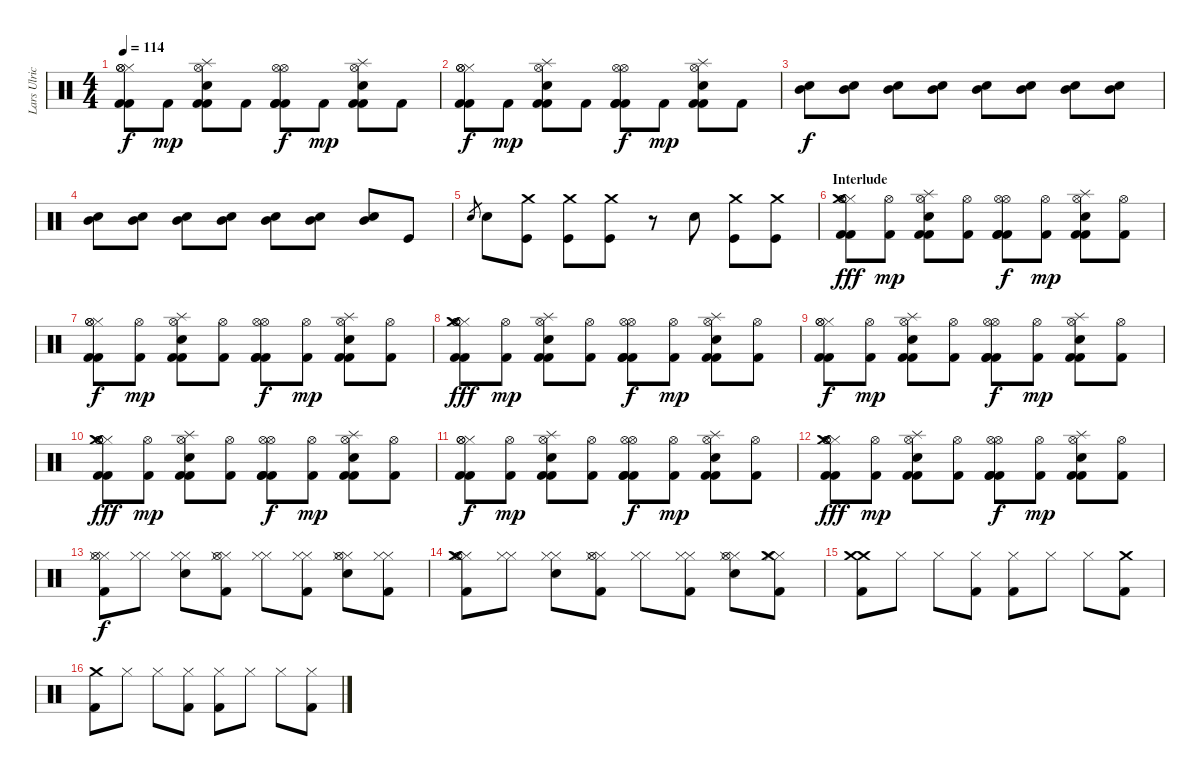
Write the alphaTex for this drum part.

\track ("Lars Ulrich" "Lars Ulric") {instrument percussion}
\staff {score}
\articulation defaults
\ts (4 4)
\tempo 114
\clef neutral
\ks c
("Hi-Hat (closed)" "Hi-Hat (open)" "Hi-Hat (open)" "Kick (hit) 2" "Kick (hit) 2").8{dy f} "Kick (hit) 2".8{dy mp} ("Snare (hit) 2" "Splash (hit)" "Hi-Hat (open)" "Kick (hit) 2" "Kick (hit) 2").8 "Kick (hit) 2".8 ("Kick (hit) 2" "Hi-Hat (open)" "Hi-Hat (open)" "Kick (hit) 2" "Kick (hit) 2").8{dy f} "Kick (hit) 2".8{dy mp} ("Snare (hit) 2" "Splash (hit)" "Hi-Hat (open)" "Kick (hit) 2" "Kick (hit) 2").8 "Kick (hit) 2".8 |
("Hi-Hat (closed)" "Hi-Hat (open)" "Hi-Hat (open)" "Kick (hit) 2" "Kick (hit) 2").8{dy f} "Kick (hit) 2".8{dy mp} ("Snare (hit) 2" "Splash (hit)" "Hi-Hat (open)" "Kick (hit) 2" "Kick (hit) 2").8 "Kick (hit) 2".8 ("Kick (hit) 2" "Hi-Hat (open)" "Hi-Hat (open)" "Kick (hit) 2" "Kick (hit) 2").8{dy f} "Kick (hit) 2".8{dy mp} ("Snare (hit) 2" "Splash (hit)" "Hi-Hat (open)" "Kick (hit) 2" "Kick (hit) 2").8 "Kick (hit) 2".8 |
("Electric Snare (hit)" "Mid Tom (hit)").8{dy f} ("Electric Snare (hit)" "Mid Tom (hit)").8 ("Electric Snare (hit)" "Mid Tom (hit)").8 ("Electric Snare (hit)" "Mid Tom (hit)").8 ("Electric Snare (hit)" "Mid Tom (hit)").8 ("Electric Snare (hit)" "Mid Tom (hit)").8 ("Electric Snare (hit)" "Mid Tom (hit)").8 ("Electric Snare (hit)" "Mid Tom (hit)").8 |
("Electric Snare (hit)" "Mid Tom (hit)").8 ("Electric Snare (hit)" "Mid Tom (hit)").8 ("Electric Snare (hit)" "Mid Tom (hit)").8 ("Electric Snare (hit)" "Mid Tom (hit)").8 ("Electric Snare (hit)" "Mid Tom (hit)").8 ("Electric Snare (hit)" "Mid Tom (hit)").8 ("Electric Snare (hit)" "Mid Tom (hit)").8 "Kick (hit)".8 |
"Electric Snare (hit)".8{gr} "Electric Snare (hit)".8 ("Kick (hit)" "Crash medium (hit)").8 ("Kick (hit)" "Crash medium (hit)").8 ("Kick (hit)" "Crash medium (hit)").8 r.8 "Electric Snare (hit)".8 ("Kick (hit)" "Crash medium (hit)").8 ("Kick (hit)" "Crash medium (hit)").8 |
\section ("" "Interlude")
("Hi-Hat (closed)" "Hi-Hat (open)" "Hi-Hat (open)" "Kick (hit) 2" "Kick (hit) 2" "Crash medium (hit)").8{dy fff} ("Hi-Hat (open)" "Kick (hit) 2").8{dy mp} ("Snare (hit) 2" "Splash (hit)" "Hi-Hat (open)" "Kick (hit) 2" "Kick (hit) 2").8 ("Hi-Hat (open)" "Kick (hit) 2").8 ("Kick (hit) 2" "Hi-Hat (open)" "Hi-Hat (open)" "Kick (hit) 2" "Kick (hit) 2").8{dy f} ("Hi-Hat (open)" "Kick (hit) 2").8{dy mp} ("Snare (hit) 2" "Splash (hit)" "Hi-Hat (open)" "Kick (hit) 2" "Kick (hit) 2").8 ("Hi-Hat (open)" "Kick (hit) 2").8 |
("Hi-Hat (closed)" "Hi-Hat (open)" "Hi-Hat (open)" "Kick (hit) 2" "Kick (hit) 2").8{dy f} ("Hi-Hat (open)" "Kick (hit) 2").8{dy mp} ("Snare (hit) 2" "Splash (hit)" "Hi-Hat (open)" "Kick (hit) 2" "Kick (hit) 2").8 ("Hi-Hat (open)" "Kick (hit) 2").8 ("Kick (hit) 2" "Hi-Hat (open)" "Hi-Hat (open)" "Kick (hit) 2" "Kick (hit) 2").8{dy f} ("Hi-Hat (open)" "Kick (hit) 2").8{dy mp} ("Snare (hit) 2" "Splash (hit)" "Hi-Hat (open)" "Kick (hit) 2" "Kick (hit) 2").8 ("Hi-Hat (open)" "Kick (hit) 2").8 |
("Hi-Hat (closed)" "Hi-Hat (open)" "Hi-Hat (open)" "Kick (hit) 2" "Kick (hit) 2" "Crash medium (hit)").8{dy fff} ("Hi-Hat (open)" "Kick (hit) 2").8{dy mp} ("Snare (hit) 2" "Splash (hit)" "Hi-Hat (open)" "Kick (hit) 2" "Kick (hit) 2").8 ("Hi-Hat (open)" "Kick (hit) 2").8 ("Kick (hit) 2" "Hi-Hat (open)" "Hi-Hat (open)" "Kick (hit) 2" "Kick (hit) 2").8{dy f} ("Hi-Hat (open)" "Kick (hit) 2").8{dy mp} ("Snare (hit) 2" "Splash (hit)" "Hi-Hat (open)" "Kick (hit) 2" "Kick (hit) 2").8 ("Hi-Hat (open)" "Kick (hit) 2").8 |
("Hi-Hat (closed)" "Hi-Hat (open)" "Hi-Hat (open)" "Kick (hit) 2" "Kick (hit) 2").8{dy f} ("Hi-Hat (open)" "Kick (hit) 2").8{dy mp} ("Snare (hit) 2" "Splash (hit)" "Hi-Hat (open)" "Kick (hit) 2" "Kick (hit) 2").8 ("Hi-Hat (open)" "Kick (hit) 2").8 ("Kick (hit) 2" "Hi-Hat (open)" "Hi-Hat (open)" "Kick (hit) 2" "Kick (hit) 2").8{dy f} ("Hi-Hat (open)" "Kick (hit) 2").8{dy mp} ("Snare (hit) 2" "Splash (hit)" "Hi-Hat (open)" "Kick (hit) 2" "Kick (hit) 2").8 ("Hi-Hat (open)" "Kick (hit) 2").8 |
("Hi-Hat (closed)" "Hi-Hat (open)" "Hi-Hat (open)" "Kick (hit) 2" "Kick (hit) 2" "Crash medium (hit)").8{dy fff} ("Hi-Hat (open)" "Kick (hit) 2").8{dy mp} ("Snare (hit) 2" "Splash (hit)" "Hi-Hat (open)" "Kick (hit) 2" "Kick (hit) 2").8 ("Hi-Hat (open)" "Kick (hit) 2").8 ("Kick (hit) 2" "Hi-Hat (open)" "Hi-Hat (open)" "Kick (hit) 2" "Kick (hit) 2").8{dy f} ("Hi-Hat (open)" "Kick (hit) 2").8{dy mp} ("Snare (hit) 2" "Splash (hit)" "Hi-Hat (open)" "Kick (hit) 2" "Kick (hit) 2").8 ("Hi-Hat (open)" "Kick (hit) 2").8 |
("Hi-Hat (closed)" "Hi-Hat (open)" "Hi-Hat (open)" "Kick (hit) 2" "Kick (hit) 2").8{dy f} ("Hi-Hat (open)" "Kick (hit) 2").8{dy mp} ("Snare (hit) 2" "Splash (hit)" "Hi-Hat (open)" "Kick (hit) 2" "Kick (hit) 2").8 ("Hi-Hat (open)" "Kick (hit) 2").8 ("Kick (hit) 2" "Hi-Hat (open)" "Hi-Hat (open)" "Kick (hit) 2" "Kick (hit) 2").8{dy f} ("Hi-Hat (open)" "Kick (hit) 2").8{dy mp} ("Snare (hit) 2" "Splash (hit)" "Hi-Hat (open)" "Kick (hit) 2" "Kick (hit) 2").8 ("Hi-Hat (open)" "Kick (hit) 2").8 |
("Hi-Hat (closed)" "Hi-Hat (open)" "Hi-Hat (open)" "Kick (hit) 2" "Kick (hit) 2" "Crash medium (hit)").8{dy fff} ("Hi-Hat (open)" "Kick (hit) 2").8{dy mp} ("Snare (hit) 2" "Splash (hit)" "Hi-Hat (open)" "Kick (hit) 2" "Kick (hit) 2").8 ("Hi-Hat (open)" "Kick (hit) 2").8 ("Kick (hit) 2" "Hi-Hat (open)" "Hi-Hat (open)" "Kick (hit) 2" "Kick (hit) 2").8{dy f} ("Hi-Hat (open)" "Kick (hit) 2").8{dy mp} ("Snare (hit) 2" "Splash (hit)" "Hi-Hat (open)" "Kick (hit) 2" "Kick (hit) 2").8 ("Hi-Hat (open)" "Kick (hit) 2").8 |
("Kick (hit) 2" "Hi-Hat (closed)" "Hi-Hat (closed)" "Hi-Hat (open)").8{dy f} ("Hi-Hat (closed)" "Hi-Hat (closed)").8 ("Electric Snare (hit)" "Hi-Hat (closed)" "Hi-Hat (closed)").8 ("Kick (hit) 2" "Hi-Hat (closed)" "Hi-Hat (closed)" "Hi-Hat (open)").8 ("Hi-Hat (closed)" "Hi-Hat (closed)").8 ("Kick (hit) 2" "Hi-Hat (closed)" "Hi-Hat (closed)").8 ("Electric Snare (hit)" "Hi-Hat (closed)" "Hi-Hat (closed)" "Hi-Hat (open)").8 ("Kick (hit) 2" "Hi-Hat (closed)" "Hi-Hat (closed)").8 |
("Kick (hit) 2" "Hi-Hat (closed)" "Hi-Hat (closed)" "Hi-Hat (open)" "Crash medium (hit)").8 ("Hi-Hat (closed)" "Hi-Hat (closed)").8 ("Electric Snare (hit)" "Hi-Hat (closed)" "Hi-Hat (closed)").8 ("Kick (hit) 2" "Hi-Hat (closed)" "Hi-Hat (closed)" "Hi-Hat (open)").8 ("Hi-Hat (closed)" "Hi-Hat (closed)").8 ("Kick (hit) 2" "Hi-Hat (closed)" "Hi-Hat (closed)").8 ("Electric Snare (hit)" "Hi-Hat (closed)" "Hi-Hat (closed)" "Hi-Hat (open)").8 ("Kick (hit) 2" "Hi-Hat (closed)" "Hi-Hat (closed)" "Crash medium (hit)").8 |
("Kick (hit) 2" "Crash medium (hit)" "Crash medium (hit)").8 "Hi-Hat (closed)".8 "Hi-Hat (closed)".8 ("Kick (hit) 2" "Hi-Hat (closed)").8 ("Kick (hit) 2" "Hi-Hat (closed)").8 "Hi-Hat (closed)".8 "Hi-Hat (closed)".8 ("Kick (hit) 2" "Crash medium (hit)").8 |
("Kick (hit) 2" "Crash medium (hit)").8 "Hi-Hat (closed)".8 "Hi-Hat (closed)".8 ("Kick (hit) 2" "Hi-Hat (closed)").8 ("Kick (hit) 2" "Hi-Hat (closed)").8 "Hi-Hat (closed)".8 "Hi-Hat (closed)".8 ("Kick (hit) 2" "Hi-Hat (closed)").8
